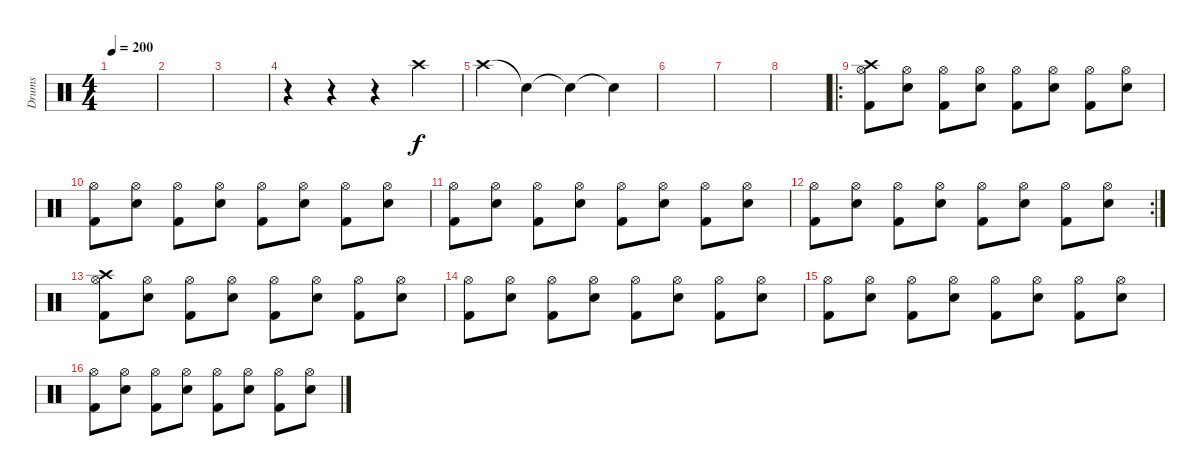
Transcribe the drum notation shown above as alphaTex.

\track ("Drums" "Drums") {instrument percussion}
\staff {score}
\articulation defaults
\ts (4 4)
\tempo 200
\clef neutral
\ks c
|
|
|
r.4 r.4 r.4 "Crash high (hit)".4 |
"Crash high (hit)".4 "Snare (hit)"{t}.4 "Snare (hit)"{t}.4 "Snare (hit)"{t}.4 |
|
|
|
\ro
("Kick (hit) 2" "Hi-Hat (open)" "Crash high (hit)").8 ("Snare (hit) 2" "Hi-Hat (open)").8 ("Kick (hit) 2" "Hi-Hat (open)").8 ("Snare (hit) 2" "Hi-Hat (open)").8 ("Kick (hit) 2" "Hi-Hat (open)").8 ("Snare (hit) 2" "Hi-Hat (open)").8 ("Kick (hit) 2" "Hi-Hat (open)").8 ("Snare (hit) 2" "Hi-Hat (open)").8 |
("Kick (hit) 2" "Hi-Hat (open)").8 ("Snare (hit) 2" "Hi-Hat (open)").8 ("Kick (hit) 2" "Hi-Hat (open)").8 ("Snare (hit) 2" "Hi-Hat (open)").8 ("Kick (hit) 2" "Hi-Hat (open)").8 ("Snare (hit) 2" "Hi-Hat (open)").8 ("Kick (hit) 2" "Hi-Hat (open)").8 ("Snare (hit) 2" "Hi-Hat (open)").8 |
("Kick (hit) 2" "Hi-Hat (open)").8 ("Snare (hit) 2" "Hi-Hat (open)").8 ("Kick (hit) 2" "Hi-Hat (open)").8 ("Snare (hit) 2" "Hi-Hat (open)").8 ("Kick (hit) 2" "Hi-Hat (open)").8 ("Snare (hit) 2" "Hi-Hat (open)").8 ("Kick (hit) 2" "Hi-Hat (open)").8 ("Snare (hit) 2" "Hi-Hat (open)").8 |
\rc 2
("Kick (hit) 2" "Hi-Hat (open)").8 ("Snare (hit) 2" "Hi-Hat (open)").8 ("Kick (hit) 2" "Hi-Hat (open)").8 ("Snare (hit) 2" "Hi-Hat (open)").8 ("Kick (hit) 2" "Hi-Hat (open)").8 ("Snare (hit) 2" "Hi-Hat (open)").8 ("Kick (hit) 2" "Hi-Hat (open)").8 ("Snare (hit) 2" "Hi-Hat (open)").8 |
("Kick (hit) 2" "Hi-Hat (open)" "Crash high (hit)").8 ("Snare (hit) 2" "Hi-Hat (open)").8 ("Kick (hit) 2" "Hi-Hat (open)").8 ("Snare (hit) 2" "Hi-Hat (open)").8 ("Kick (hit) 2" "Hi-Hat (open)").8 ("Snare (hit) 2" "Hi-Hat (open)").8 ("Kick (hit) 2" "Hi-Hat (open)").8 ("Snare (hit) 2" "Hi-Hat (open)").8 |
("Kick (hit) 2" "Hi-Hat (open)").8 ("Snare (hit) 2" "Hi-Hat (open)").8 ("Kick (hit) 2" "Hi-Hat (open)").8 ("Snare (hit) 2" "Hi-Hat (open)").8 ("Kick (hit) 2" "Hi-Hat (open)").8 ("Snare (hit) 2" "Hi-Hat (open)").8 ("Kick (hit) 2" "Hi-Hat (open)").8 ("Snare (hit) 2" "Hi-Hat (open)").8 |
("Kick (hit) 2" "Hi-Hat (open)").8 ("Snare (hit) 2" "Hi-Hat (open)").8 ("Kick (hit) 2" "Hi-Hat (open)").8 ("Snare (hit) 2" "Hi-Hat (open)").8 ("Kick (hit) 2" "Hi-Hat (open)").8 ("Snare (hit) 2" "Hi-Hat (open)").8 ("Kick (hit) 2" "Hi-Hat (open)").8 ("Snare (hit) 2" "Hi-Hat (open)").8 |
("Kick (hit) 2" "Hi-Hat (open)").8 ("Snare (hit) 2" "Hi-Hat (open)").8 ("Kick (hit) 2" "Hi-Hat (open)").8 ("Snare (hit) 2" "Hi-Hat (open)").8 ("Kick (hit) 2" "Hi-Hat (open)").8 ("Snare (hit) 2" "Hi-Hat (open)").8 ("Kick (hit) 2" "Hi-Hat (open)").8 ("Snare (hit) 2" "Hi-Hat (open)").8
